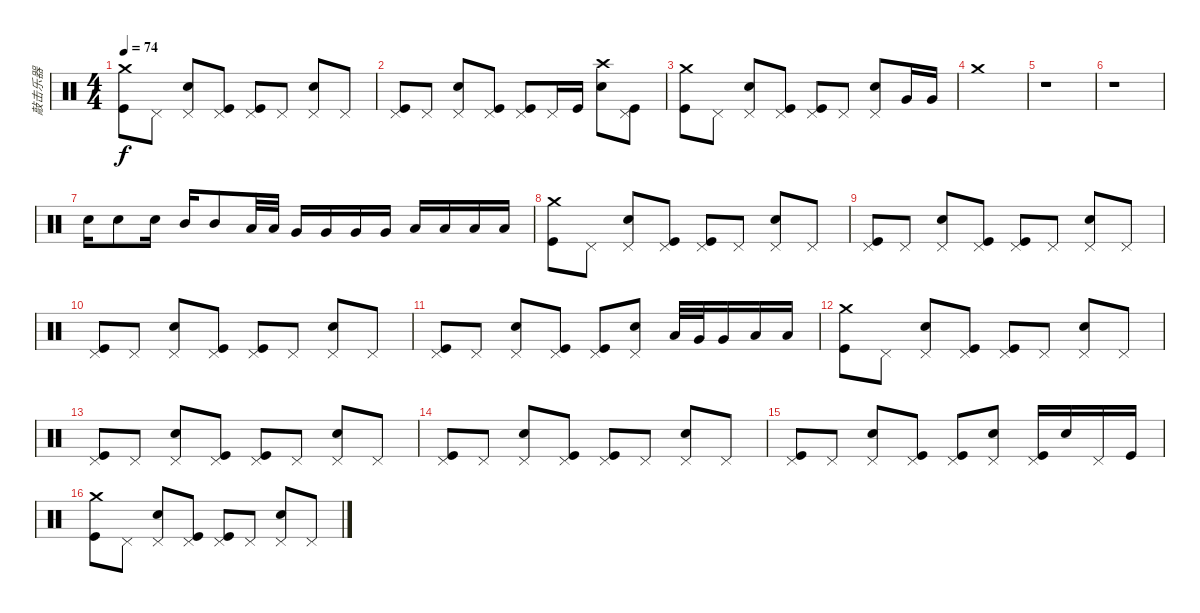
\track ("敲击乐器" "敲击乐器") {instrument percussion}
\staff {score}
\articulation defaults
\ts (4 4)
\tempo 74
\clef neutral
\ks c
("Crash medium (hit)" "Kick (hit)").8{dy f} "Pedal Hi-Hat (hit)".8 ("Pedal Hi-Hat (hit)" "Snare (hit) 2").8 ("Pedal Hi-Hat (hit)" "Kick (hit)").8 ("Pedal Hi-Hat (hit)" "Kick (hit)").8 "Pedal Hi-Hat (hit)".8 ("Pedal Hi-Hat (hit)" "Snare (hit) 2").8 "Pedal Hi-Hat (hit)".8 |
("Pedal Hi-Hat (hit)" "Kick (hit)").8 "Pedal Hi-Hat (hit)".8 ("Pedal Hi-Hat (hit)" "Snare (hit) 2").8 ("Pedal Hi-Hat (hit)" "Kick (hit)").8 ("Pedal Hi-Hat (hit)" "Kick (hit)").8 "Pedal Hi-Hat (hit)".16 "Kick (hit)".16 ("Crash high (hit)" "Snare (hit) 2").8 ("Pedal Hi-Hat (hit)" "Kick (hit)").8 |
("Crash medium (hit)" "Kick (hit)").8 "Pedal Hi-Hat (hit)".8 ("Pedal Hi-Hat (hit)" "Snare (hit) 2").8 ("Pedal Hi-Hat (hit)" "Kick (hit)").8 ("Pedal Hi-Hat (hit)" "Kick (hit)").8 "Pedal Hi-Hat (hit)".8 ("Pedal Hi-Hat (hit)" "Snare (hit) 2").8 "Very Low Tom (hit)".16 "Very Low Tom (hit)".16 |
"Crash medium (hit)".1 |
r.1 |
r.1 |
"Snare (hit) 2".16 "Snare (hit) 2".8 "Snare (hit) 2".16 "Mid Tom (hit)".16 "Mid Tom (hit)".8 "Low Tom (hit)".32 "Low Tom (hit)".32 "Very Low Tom (hit)".16 "Very Low Tom (hit)".16 "Very Low Tom (hit)".16 "Very Low Tom (hit)".16 "Low Floor Tom (hit)".16 "Low Floor Tom (hit)".16 "Low Floor Tom (hit)".16 "Low Floor Tom (hit)".16 |
("Crash medium (hit)" "Kick (hit)").8 "Pedal Hi-Hat (hit)".8 ("Pedal Hi-Hat (hit)" "Snare (hit) 2").8 ("Pedal Hi-Hat (hit)" "Kick (hit)").8 ("Pedal Hi-Hat (hit)" "Kick (hit)").8 "Pedal Hi-Hat (hit)".8 ("Pedal Hi-Hat (hit)" "Snare (hit) 2").8 "Pedal Hi-Hat (hit)".8 |
("Pedal Hi-Hat (hit)" "Kick (hit)").8 "Pedal Hi-Hat (hit)".8 ("Pedal Hi-Hat (hit)" "Snare (hit) 2").8 ("Pedal Hi-Hat (hit)" "Kick (hit)").8 ("Pedal Hi-Hat (hit)" "Kick (hit)").8 "Pedal Hi-Hat (hit)".8 ("Pedal Hi-Hat (hit)" "Snare (hit) 2").8 "Pedal Hi-Hat (hit)".8 |
("Pedal Hi-Hat (hit)" "Kick (hit)").8 "Pedal Hi-Hat (hit)".8 ("Pedal Hi-Hat (hit)" "Snare (hit) 2").8 ("Pedal Hi-Hat (hit)" "Kick (hit)").8 ("Pedal Hi-Hat (hit)" "Kick (hit)").8 "Pedal Hi-Hat (hit)".8 ("Pedal Hi-Hat (hit)" "Snare (hit) 2").8 "Pedal Hi-Hat (hit)".8 |
("Pedal Hi-Hat (hit)" "Kick (hit)").8 "Pedal Hi-Hat (hit)".8 ("Pedal Hi-Hat (hit)" "Snare (hit) 2").8 ("Pedal Hi-Hat (hit)" "Kick (hit)").8 ("Pedal Hi-Hat (hit)" "Kick (hit)").8 ("Pedal Hi-Hat (hit)" "Snare (hit) 2").8 "Low Tom (hit)".32 "Very Low Tom (hit)".32 "Very Low Tom (hit)".16 "Low Floor Tom (hit)".16 "Low Floor Tom (hit)".16 |
("Crash medium (hit)" "Kick (hit)").8 "Pedal Hi-Hat (hit)".8 ("Pedal Hi-Hat (hit)" "Snare (hit) 2").8 ("Pedal Hi-Hat (hit)" "Kick (hit)").8 ("Pedal Hi-Hat (hit)" "Kick (hit)").8 "Pedal Hi-Hat (hit)".8 ("Pedal Hi-Hat (hit)" "Snare (hit) 2").8 "Pedal Hi-Hat (hit)".8 |
("Pedal Hi-Hat (hit)" "Kick (hit)").8 "Pedal Hi-Hat (hit)".8 ("Pedal Hi-Hat (hit)" "Snare (hit) 2").8 ("Pedal Hi-Hat (hit)" "Kick (hit)").8 ("Pedal Hi-Hat (hit)" "Kick (hit)").8 "Pedal Hi-Hat (hit)".8 ("Pedal Hi-Hat (hit)" "Snare (hit) 2").8 "Pedal Hi-Hat (hit)".8 |
("Pedal Hi-Hat (hit)" "Kick (hit)").8 "Pedal Hi-Hat (hit)".8 ("Pedal Hi-Hat (hit)" "Snare (hit) 2").8 ("Pedal Hi-Hat (hit)" "Kick (hit)").8 ("Pedal Hi-Hat (hit)" "Kick (hit)").8 "Pedal Hi-Hat (hit)".8 ("Pedal Hi-Hat (hit)" "Snare (hit) 2").8 "Pedal Hi-Hat (hit)".8 |
("Pedal Hi-Hat (hit)" "Kick (hit)").8 "Pedal Hi-Hat (hit)".8 ("Pedal Hi-Hat (hit)" "Snare (hit) 2").8 ("Pedal Hi-Hat (hit)" "Kick (hit)").8 ("Pedal Hi-Hat (hit)" "Kick (hit)").8 ("Pedal Hi-Hat (hit)" "Snare (hit) 2").8 ("Pedal Hi-Hat (hit)" "Kick (hit)").16 "Snare (hit) 2".16 "Pedal Hi-Hat (hit)".16 "Kick (hit)".16 |
("Crash medium (hit)" "Kick (hit)").8 "Pedal Hi-Hat (hit)".8 ("Pedal Hi-Hat (hit)" "Snare (hit) 2").8 ("Pedal Hi-Hat (hit)" "Kick (hit)").8 ("Pedal Hi-Hat (hit)" "Kick (hit)").8 "Pedal Hi-Hat (hit)".8 ("Pedal Hi-Hat (hit)" "Snare (hit) 2").8 "Pedal Hi-Hat (hit)".8
